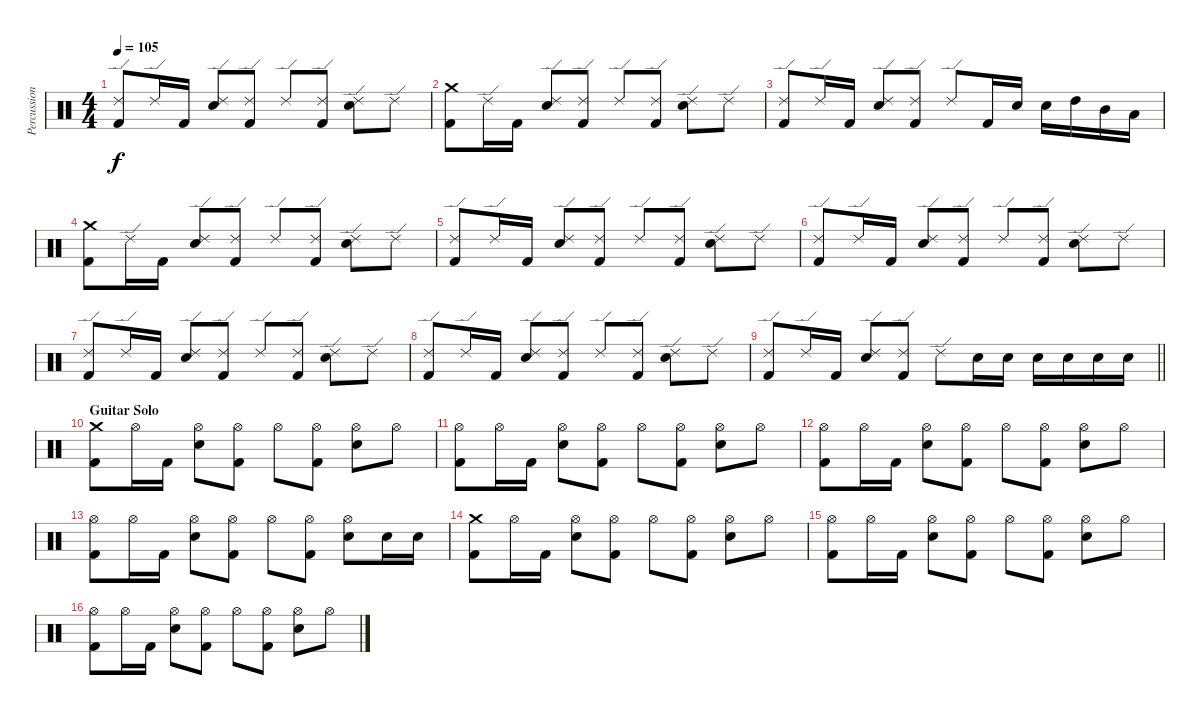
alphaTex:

\track ("Percussion" "Percussion") {instrument percussion}
\staff {score}
\articulation defaults
\ts (4 4)
\tempo 105
\clef neutral
\ks c
("Ride (edge) 2" "Kick (hit) 2").8{dy f} "Ride (edge) 2".16 "Kick (hit) 2".16 ("Ride (edge) 2" "Electric Snare (hit)").8 ("Ride (edge) 2" "Kick (hit) 2").8 "Ride (edge) 2".8 ("Ride (edge) 2" "Kick (hit) 2").8 ("Ride (edge) 2" "Electric Snare (hit)").8 "Ride (edge) 2".8 |
("Crash medium (hit)" "Kick (hit) 2").8 "Ride (edge) 2".16 "Kick (hit) 2".16 ("Ride (edge) 2" "Electric Snare (hit)").8 ("Ride (edge) 2" "Kick (hit) 2").8 "Ride (edge) 2".8 ("Ride (edge) 2" "Kick (hit) 2").8 ("Ride (edge) 2" "Electric Snare (hit)").8 "Ride (edge) 2".8 |
("Ride (edge) 2" "Kick (hit) 2").8 "Ride (edge) 2".16 "Kick (hit) 2".16 ("Ride (edge) 2" "Electric Snare (hit)").8 ("Ride (edge) 2" "Kick (hit) 2").8 "Ride (edge) 2".8 "Kick (hit) 2".16 "Electric Snare (hit)".16 "Electric Snare (hit)".16 "High Tom (hit)".16 "Mid Tom (hit)".16 "Low Tom (hit)".16 |
("Crash medium (hit)" "Kick (hit) 2").8 "Ride (edge) 2".16 "Kick (hit) 2".16 ("Ride (edge) 2" "Electric Snare (hit)").8 ("Ride (edge) 2" "Kick (hit) 2").8 "Ride (edge) 2".8 ("Ride (edge) 2" "Kick (hit) 2").8 ("Ride (edge) 2" "Electric Snare (hit)").8 "Ride (edge) 2".8 |
("Ride (edge) 2" "Kick (hit) 2").8 "Ride (edge) 2".16 "Kick (hit) 2".16 ("Ride (edge) 2" "Electric Snare (hit)").8 ("Ride (edge) 2" "Kick (hit) 2").8 "Ride (edge) 2".8 ("Ride (edge) 2" "Kick (hit) 2").8 ("Ride (edge) 2" "Electric Snare (hit)").8 "Ride (edge) 2".8 |
("Ride (edge) 2" "Kick (hit) 2").8 "Ride (edge) 2".16 "Kick (hit) 2".16 ("Ride (edge) 2" "Electric Snare (hit)").8 ("Ride (edge) 2" "Kick (hit) 2").8 "Ride (edge) 2".8 ("Ride (edge) 2" "Kick (hit) 2").8 ("Ride (edge) 2" "Electric Snare (hit)").8 "Ride (edge) 2".8 |
("Ride (edge) 2" "Kick (hit) 2").8 "Ride (edge) 2".16 "Kick (hit) 2".16 ("Ride (edge) 2" "Electric Snare (hit)").8 ("Ride (edge) 2" "Kick (hit) 2").8 "Ride (edge) 2".8 ("Ride (edge) 2" "Kick (hit) 2").8 ("Ride (edge) 2" "Electric Snare (hit)").8 "Ride (edge) 2".8 |
("Ride (edge) 2" "Kick (hit) 2").8 "Ride (edge) 2".16 "Kick (hit) 2".16 ("Ride (edge) 2" "Electric Snare (hit)").8 ("Ride (edge) 2" "Kick (hit) 2").8 "Ride (edge) 2".8 ("Ride (edge) 2" "Kick (hit) 2").8 ("Ride (edge) 2" "Electric Snare (hit)").8 "Ride (edge) 2".8 |
\barLineRight lightlight
("Ride (edge) 2" "Kick (hit) 2").8 "Ride (edge) 2".16 "Kick (hit) 2".16 ("Ride (edge) 2" "Electric Snare (hit)").8 ("Ride (edge) 2" "Kick (hit) 2").8 "Ride (edge) 2".8 "Electric Snare (hit)".16 "Electric Snare (hit)".16 "Electric Snare (hit)".16 "Electric Snare (hit)".16 "Electric Snare (hit)".16 "Electric Snare (hit)".16 |
\section ("" "Guitar Solo")
("Crash medium (hit)" "Kick (hit) 2").8 "Hi-Hat (open)".16 "Kick (hit) 2".16 ("Hi-Hat (open)" "Electric Snare (hit)").8 ("Hi-Hat (open)" "Kick (hit) 2").8 "Hi-Hat (open)".8 ("Hi-Hat (open)" "Kick (hit) 2").8 ("Hi-Hat (open)" "Electric Snare (hit)").8 "Hi-Hat (open)".8 |
("Hi-Hat (open)" "Kick (hit) 2").8 "Hi-Hat (open)".16 "Kick (hit) 2".16 ("Hi-Hat (open)" "Electric Snare (hit)").8 ("Hi-Hat (open)" "Kick (hit) 2").8 "Hi-Hat (open)".8 ("Hi-Hat (open)" "Kick (hit) 2").8 ("Hi-Hat (open)" "Electric Snare (hit)").8 "Hi-Hat (open)".8 |
("Hi-Hat (open)" "Kick (hit) 2").8 "Hi-Hat (open)".16 "Kick (hit) 2".16 ("Hi-Hat (open)" "Electric Snare (hit)").8 ("Hi-Hat (open)" "Kick (hit) 2").8 "Hi-Hat (open)".8 ("Hi-Hat (open)" "Kick (hit) 2").8 ("Hi-Hat (open)" "Electric Snare (hit)").8 "Hi-Hat (open)".8 |
("Hi-Hat (open)" "Kick (hit) 2").8 "Hi-Hat (open)".16 "Kick (hit) 2".16 ("Hi-Hat (open)" "Electric Snare (hit)").8 ("Hi-Hat (open)" "Kick (hit) 2").8 "Hi-Hat (open)".8 ("Hi-Hat (open)" "Kick (hit) 2").8 ("Hi-Hat (open)" "Electric Snare (hit)").8 "Electric Snare (hit)".16 "Electric Snare (hit)".16 |
("Crash medium (hit)" "Kick (hit) 2").8 "Hi-Hat (open)".16 "Kick (hit) 2".16 ("Hi-Hat (open)" "Electric Snare (hit)").8 ("Hi-Hat (open)" "Kick (hit) 2").8 "Hi-Hat (open)".8 ("Hi-Hat (open)" "Kick (hit) 2").8 ("Hi-Hat (open)" "Electric Snare (hit)").8 "Hi-Hat (open)".8 |
("Hi-Hat (open)" "Kick (hit) 2").8 "Hi-Hat (open)".16 "Kick (hit) 2".16 ("Hi-Hat (open)" "Electric Snare (hit)").8 ("Hi-Hat (open)" "Kick (hit) 2").8 "Hi-Hat (open)".8 ("Hi-Hat (open)" "Kick (hit) 2").8 ("Hi-Hat (open)" "Electric Snare (hit)").8 "Hi-Hat (open)".8 |
("Hi-Hat (open)" "Kick (hit) 2").8 "Hi-Hat (open)".16 "Kick (hit) 2".16 ("Hi-Hat (open)" "Electric Snare (hit)").8 ("Hi-Hat (open)" "Kick (hit) 2").8 "Hi-Hat (open)".8 ("Hi-Hat (open)" "Kick (hit) 2").8 ("Hi-Hat (open)" "Electric Snare (hit)").8 "Hi-Hat (open)".8
